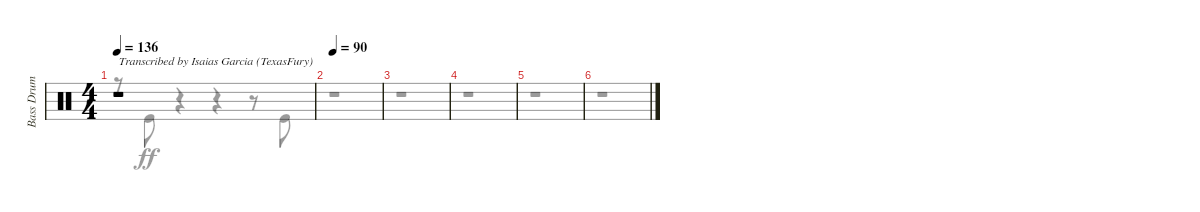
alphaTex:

\track ("Bass Drum" "Bass Drum") {instrument percussion}
\staff {score}
\articulation defaults
\voice
\ts (4 4)
\tempo 136
\clef neutral
\ks c
r.1{txt "Transcribed by Isaias Garcia (TexasFury)" dy f} |
\tempo 90
|
|
|
|
\voice
\clef neutral
\ottava regular
\simile none
\ks c
r.8{dy ff} "Kick (hit)".8 r.4 r.4 r.8 "Kick (hit)".8 |
r.1 |
r.1 |
r.1 |
r.1 |
r.1
